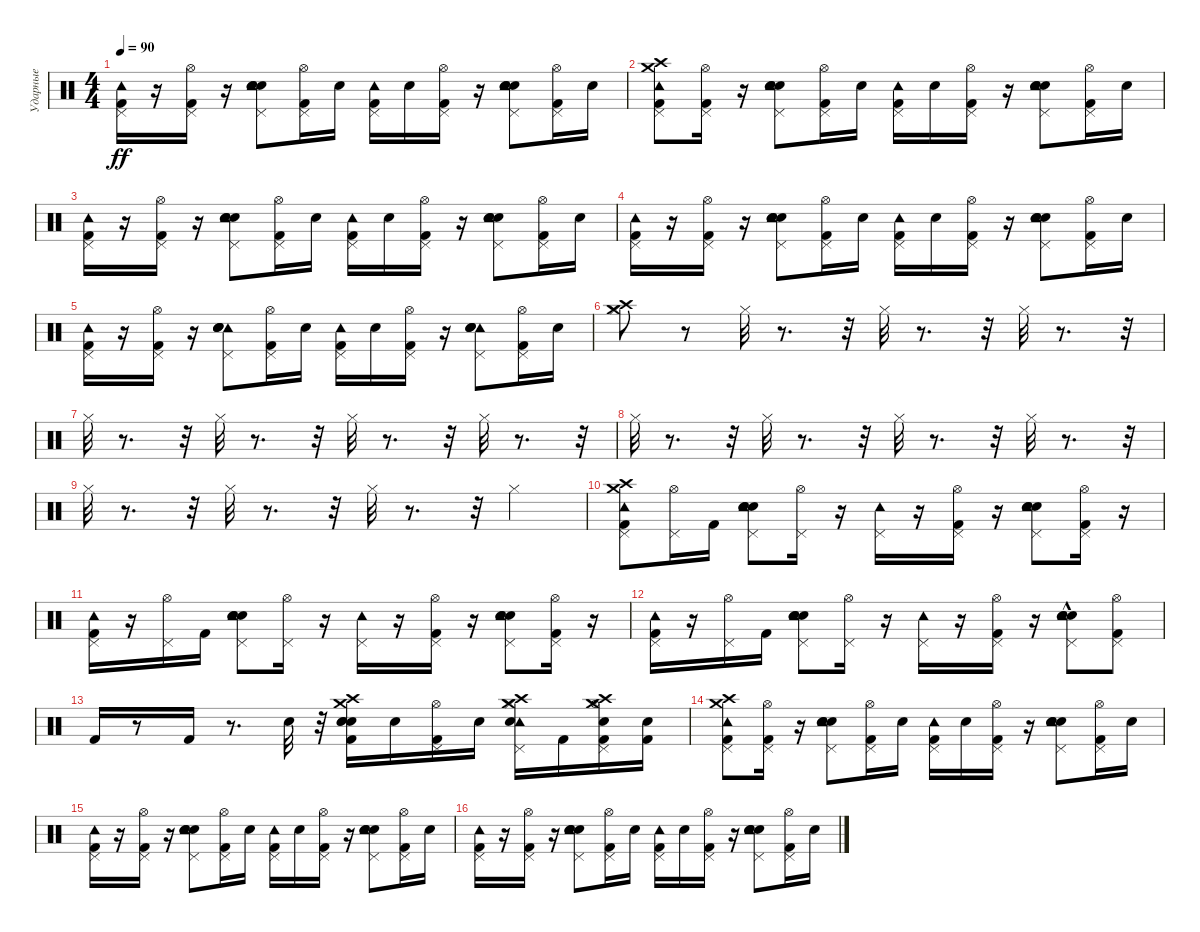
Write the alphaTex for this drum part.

\track ("Ударные" "Ударные") {instrument percussion}
\staff {score}
\articulation defaults
\ts (4 4)
\tempo 90
\clef neutral
\ks c
("Kick (hit) 2" "Tambourine (hit)" "Pedal Hi-Hat (hit)").16{dy ff} r.16 ("Kick (hit) 2" "Hi-Hat (open)" "Pedal Hi-Hat (hit)").16 r.16 ("Electric Snare (hit)" "Hand Clap (hit)" "Snare (hit) 2" "Tambourine (hit)" "Pedal Hi-Hat (hit)").8 ("Kick (hit) 2" "Hi-Hat (open)" "Pedal Hi-Hat (hit)").16 "Snare (hit) 2".16 ("Kick (hit) 2" "Tambourine (hit)" "Pedal Hi-Hat (hit)").16 "Snare (hit) 2".16 ("Kick (hit) 2" "Hi-Hat (open)" "Pedal Hi-Hat (hit)").16 r.16 ("Electric Snare (hit)" "Hand Clap (hit)" "Snare (hit) 2" "Tambourine (hit)" "Pedal Hi-Hat (hit)").8 ("Kick (hit) 2" "Hi-Hat (open)" "Pedal Hi-Hat (hit)").16 "Snare (hit) 2".16 |
("Kick (hit) 2" "Tambourine (hit)" "Crash high (hit)" "Crash medium (hit)" "Pedal Hi-Hat (hit)").8 ("Kick (hit) 2" "Hi-Hat (open)" "Pedal Hi-Hat (hit)").16 r.16 ("Electric Snare (hit)" "Snare (hit) 2" "Hand Clap (hit)" "Tambourine (hit)" "Pedal Hi-Hat (hit)").8 ("Kick (hit) 2" "Hi-Hat (open)" "Pedal Hi-Hat (hit)").16 "Snare (hit) 2".16 ("Kick (hit) 2" "Tambourine (hit)" "Pedal Hi-Hat (hit)").16 "Snare (hit) 2".16 ("Kick (hit) 2" "Hi-Hat (open)" "Pedal Hi-Hat (hit)").16 r.16 ("Electric Snare (hit)" "Snare (hit) 2" "Hand Clap (hit)" "Tambourine (hit)" "Pedal Hi-Hat (hit)").8 ("Kick (hit) 2" "Hi-Hat (open)" "Pedal Hi-Hat (hit)").16 "Snare (hit) 2".16 |
("Kick (hit) 2" "Tambourine (hit)" "Pedal Hi-Hat (hit)").16 r.16 ("Kick (hit) 2" "Hi-Hat (open)" "Pedal Hi-Hat (hit)").16 r.16 ("Electric Snare (hit)" "Hand Clap (hit)" "Snare (hit) 2" "Tambourine (hit)" "Pedal Hi-Hat (hit)").8 ("Kick (hit) 2" "Hi-Hat (open)" "Pedal Hi-Hat (hit)").16 "Snare (hit) 2".16 ("Kick (hit) 2" "Tambourine (hit)" "Pedal Hi-Hat (hit)").16 "Snare (hit) 2".16 ("Kick (hit) 2" "Hi-Hat (open)" "Pedal Hi-Hat (hit)").16 r.16 ("Electric Snare (hit)" "Hand Clap (hit)" "Snare (hit) 2" "Tambourine (hit)" "Pedal Hi-Hat (hit)").8 ("Kick (hit) 2" "Hi-Hat (open)" "Pedal Hi-Hat (hit)").16 "Snare (hit) 2".16 |
("Kick (hit) 2" "Tambourine (hit)" "Pedal Hi-Hat (hit)").16 r.16 ("Kick (hit) 2" "Hi-Hat (open)" "Pedal Hi-Hat (hit)").16 r.16 ("Electric Snare (hit)" "Hand Clap (hit)" "Snare (hit) 2" "Tambourine (hit)" "Pedal Hi-Hat (hit)").8 ("Kick (hit) 2" "Hi-Hat (open)" "Pedal Hi-Hat (hit)").16 "Snare (hit) 2".16 ("Kick (hit) 2" "Tambourine (hit)" "Pedal Hi-Hat (hit)").16 "Snare (hit) 2".16 ("Kick (hit) 2" "Hi-Hat (open)" "Pedal Hi-Hat (hit)").16 r.16 ("Electric Snare (hit)" "Hand Clap (hit)" "Snare (hit) 2" "Tambourine (hit)" "Pedal Hi-Hat (hit)").8 ("Kick (hit) 2" "Hi-Hat (open)" "Pedal Hi-Hat (hit)").16 "Snare (hit) 2".16 |
("Tambourine (hit)" "Pedal Hi-Hat (hit)" "Kick (hit) 2").16 r.16 ("Hi-Hat (open)" "Pedal Hi-Hat (hit)" "Kick (hit) 2").16 r.16 ("Tambourine (hit)" "Pedal Hi-Hat (hit)" "Electric Snare (hit)" "Hand Clap (hit)" "Snare (hit) 2").8 ("Hi-Hat (open)" "Pedal Hi-Hat (hit)" "Kick (hit) 2").16 "Snare (hit) 2".16 ("Tambourine (hit)" "Pedal Hi-Hat (hit)" "Kick (hit) 2").16 "Snare (hit) 2".16 ("Hi-Hat (open)" "Pedal Hi-Hat (hit)" "Kick (hit) 2").16 r.16 ("Tambourine (hit)" "Pedal Hi-Hat (hit)" "Electric Snare (hit)" "Hand Clap (hit)" "Snare (hit) 2").8 ("Hi-Hat (open)" "Pedal Hi-Hat (hit)" "Kick (hit) 2").16 "Snare (hit) 2".16 |
("Crash high (hit)" "Crash medium (hit)" "Hi-Hat (closed)").8 r.8 "Hi-Hat (closed)".32 r.8{d} r.32 "Hi-Hat (closed)".32 r.8{d} r.32 "Hi-Hat (closed)".32 r.8{d} r.32 |
"Hi-Hat (closed)".32 r.8{d} r.32 "Hi-Hat (closed)".32 r.8{d} r.32 "Hi-Hat (closed)".32 r.8{d} r.32 "Hi-Hat (closed)".32 r.8{d} r.32 |
"Hi-Hat (closed)".32 r.8{d} r.32 "Hi-Hat (closed)".32 r.8{d} r.32 "Hi-Hat (closed)".32 r.8{d} r.32 "Hi-Hat (closed)".32 r.8{d} r.32 |
"Hi-Hat (closed)".32 r.8{d} r.32 "Hi-Hat (closed)".32 r.8{d} r.32 "Hi-Hat (closed)".32 r.8{d} r.32 "Hi-Hat (closed)".4 |
("Kick (hit) 2" "Tambourine (hit)" "Crash high (hit)" "Crash medium (hit)" "Pedal Hi-Hat (hit)").8 ("Hi-Hat (open)" "Pedal Hi-Hat (hit)").16 "Kick (hit) 2".16 ("Hand Clap (hit)" "Electric Snare (hit)" "Snare (hit) 2" "Tambourine (hit)" "Pedal Hi-Hat (hit)").8 ("Hi-Hat (open)" "Pedal Hi-Hat (hit)").16 r.16 ("Tambourine (hit)" "Pedal Hi-Hat (hit)").16 r.16 ("Hi-Hat (open)" "Kick (hit) 2" "Pedal Hi-Hat (hit)").16 r.16 ("Hand Clap (hit)" "Electric Snare (hit)" "Snare (hit) 2" "Tambourine (hit)" "Pedal Hi-Hat (hit)").8 ("Hi-Hat (open)" "Kick (hit) 2" "Pedal Hi-Hat (hit)").16 r.16 |
("Kick (hit) 2" "Tambourine (hit)" "Pedal Hi-Hat (hit)").16 r.16 ("Hi-Hat (open)" "Pedal Hi-Hat (hit)").16 "Kick (hit) 2".16 ("Hand Clap (hit)" "Electric Snare (hit)" "Snare (hit) 2" "Tambourine (hit)" "Pedal Hi-Hat (hit)").8 ("Hi-Hat (open)" "Pedal Hi-Hat (hit)").16 r.16 ("Tambourine (hit)" "Pedal Hi-Hat (hit)").16 r.16 ("Hi-Hat (open)" "Kick (hit) 2" "Pedal Hi-Hat (hit)").16 r.16 ("Hand Clap (hit)" "Electric Snare (hit)" "Snare (hit) 2" "Tambourine (hit)" "Pedal Hi-Hat (hit)").8 ("Hi-Hat (open)" "Kick (hit) 2" "Pedal Hi-Hat (hit)").16 r.16 |
("Kick (hit) 2" "Tambourine (hit)" "Pedal Hi-Hat (hit)").16 r.16 ("Hi-Hat (open)" "Pedal Hi-Hat (hit)").16 "Kick (hit) 2".16 ("Hand Clap (hit)" "Electric Snare (hit)" "Snare (hit) 2" "Tambourine (hit)" "Pedal Hi-Hat (hit)").8 ("Hi-Hat (open)" "Pedal Hi-Hat (hit)").16 r.16 ("Tambourine (hit)" "Pedal Hi-Hat (hit)").16 r.16 ("Hi-Hat (open)" "Kick (hit) 2" "Pedal Hi-Hat (hit)").16 r.16 ("Hand Clap (hit)" "Electric Snare (hit)" "Snare (hit) 2" "Tambourine (hit)"{hac} "Pedal Hi-Hat (hit)").8 ("Hi-Hat (open)" "Kick (hit) 2" "Pedal Hi-Hat (hit)").8 |
"Kick (hit) 2".16 r.8 "Kick (hit) 2".16 r.8{d} "Electric Snare (hit)".32 r.32 ("Electric Snare (hit)" "Electric Snare (hit)" "Kick (hit) 2" "Crash high (hit)" "Crash medium (hit)" "Electric Snare (hit)").16 "Electric Snare (hit)".16 ("Kick (hit) 2" "Hi-Hat (open)" "Pedal Hi-Hat (hit)").16 "Electric Snare (hit)".16 ("Crash high (hit)" "Crash medium (hit)" "Tambourine (hit)" "Pedal Hi-Hat (hit)" "Electric Snare (hit)" "Hi-Hat (closed)").16 "Kick (hit) 2".16 ("Kick (hit) 2" "Hi-Hat (open)" "Pedal Hi-Hat (hit)" "Crash high (hit)" "Crash medium (hit)" "Electric Snare (hit)").16 ("Kick (hit) 2" "Electric Snare (hit)").16 |
("Kick (hit) 2" "Tambourine (hit)" "Crash high (hit)" "Crash medium (hit)" "Pedal Hi-Hat (hit)").8 ("Kick (hit) 2" "Hi-Hat (open)" "Pedal Hi-Hat (hit)").16 r.16 ("Electric Snare (hit)" "Snare (hit) 2" "Hand Clap (hit)" "Tambourine (hit)" "Pedal Hi-Hat (hit)").8 ("Kick (hit) 2" "Hi-Hat (open)" "Pedal Hi-Hat (hit)").16 "Snare (hit) 2".16 ("Kick (hit) 2" "Tambourine (hit)" "Pedal Hi-Hat (hit)").16 "Snare (hit) 2".16 ("Kick (hit) 2" "Hi-Hat (open)" "Pedal Hi-Hat (hit)").16 r.16 ("Electric Snare (hit)" "Snare (hit) 2" "Hand Clap (hit)" "Tambourine (hit)" "Pedal Hi-Hat (hit)").8 ("Kick (hit) 2" "Hi-Hat (open)" "Pedal Hi-Hat (hit)").16 "Snare (hit) 2".16 |
("Kick (hit) 2" "Tambourine (hit)" "Pedal Hi-Hat (hit)").16 r.16 ("Kick (hit) 2" "Hi-Hat (open)" "Pedal Hi-Hat (hit)").16 r.16 ("Electric Snare (hit)" "Hand Clap (hit)" "Snare (hit) 2" "Tambourine (hit)" "Pedal Hi-Hat (hit)").8 ("Kick (hit) 2" "Hi-Hat (open)" "Pedal Hi-Hat (hit)").16 "Snare (hit) 2".16 ("Kick (hit) 2" "Tambourine (hit)" "Pedal Hi-Hat (hit)").16 "Snare (hit) 2".16 ("Kick (hit) 2" "Hi-Hat (open)" "Pedal Hi-Hat (hit)").16 r.16 ("Electric Snare (hit)" "Hand Clap (hit)" "Snare (hit) 2" "Tambourine (hit)" "Pedal Hi-Hat (hit)").8 ("Kick (hit) 2" "Hi-Hat (open)" "Pedal Hi-Hat (hit)").16 "Snare (hit) 2".16 |
("Kick (hit) 2" "Tambourine (hit)" "Pedal Hi-Hat (hit)").16 r.16 ("Kick (hit) 2" "Hi-Hat (open)" "Pedal Hi-Hat (hit)").16 r.16 ("Electric Snare (hit)" "Hand Clap (hit)" "Snare (hit) 2" "Tambourine (hit)" "Pedal Hi-Hat (hit)").8 ("Kick (hit) 2" "Hi-Hat (open)" "Pedal Hi-Hat (hit)").16 "Snare (hit) 2".16 ("Kick (hit) 2" "Tambourine (hit)" "Pedal Hi-Hat (hit)").16 "Snare (hit) 2".16 ("Kick (hit) 2" "Hi-Hat (open)" "Pedal Hi-Hat (hit)").16 r.16 ("Electric Snare (hit)" "Hand Clap (hit)" "Snare (hit) 2" "Tambourine (hit)" "Pedal Hi-Hat (hit)").8 ("Kick (hit) 2" "Hi-Hat (open)" "Pedal Hi-Hat (hit)").16 "Snare (hit) 2".16
